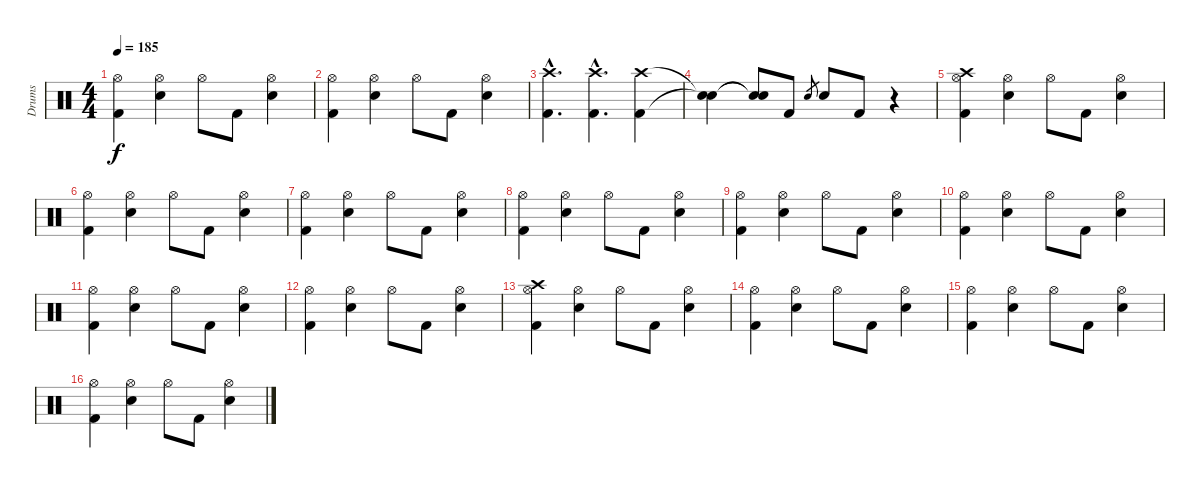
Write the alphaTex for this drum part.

\track ("Drums" "Drums") {instrument percussion}
\staff {score}
\articulation defaults
\ts (4 4)
\tempo 185
\clef neutral
\ks c
("Hi-Hat (open)" "Kick (hit) 2").4{dy f} ("Hi-Hat (open)" "Electric Snare (hit)").4 "Hi-Hat (open)".8 "Kick (hit) 2".8 ("Hi-Hat (open)" "Electric Snare (hit)").4 |
("Hi-Hat (open)" "Kick (hit) 2").4 ("Hi-Hat (open)" "Electric Snare (hit)").4 "Hi-Hat (open)".8 "Kick (hit) 2".8 ("Hi-Hat (open)" "Electric Snare (hit)").4 |
("Crash high (hit)"{hac} "Kick (hit) 2"{hac}).4{d} ("Crash high (hit)"{hac} "Kick (hit) 2"{hac}).4{d} ("Crash high (hit)" "Kick (hit) 2").4 |
("Snare (hit)"{t} "Snare (hit)"{t}).4 ("Snare (hit)"{t} "Snare (hit)"{t}).8 "Kick (hit) 2".8 "Electric Snare (hit)".8{gr} "Electric Snare (hit)".8 "Kick (hit) 2".8 r.4 |
("Hi-Hat (open)" "Crash high (hit)" "Kick (hit) 2").4 ("Hi-Hat (open)" "Electric Snare (hit)").4 "Hi-Hat (open)".8 "Kick (hit) 2".8 ("Hi-Hat (open)" "Electric Snare (hit)").4 |
("Hi-Hat (open)" "Kick (hit) 2").4 ("Hi-Hat (open)" "Electric Snare (hit)").4 "Hi-Hat (open)".8 "Kick (hit) 2".8 ("Hi-Hat (open)" "Electric Snare (hit)").4 |
("Hi-Hat (open)" "Kick (hit) 2").4 ("Hi-Hat (open)" "Electric Snare (hit)").4 "Hi-Hat (open)".8 "Kick (hit) 2".8 ("Hi-Hat (open)" "Electric Snare (hit)").4 |
("Hi-Hat (open)" "Kick (hit) 2").4 ("Hi-Hat (open)" "Electric Snare (hit)").4 "Hi-Hat (open)".8 "Kick (hit) 2".8 ("Hi-Hat (open)" "Electric Snare (hit)").4 |
("Hi-Hat (open)" "Kick (hit) 2").4 ("Hi-Hat (open)" "Electric Snare (hit)").4 "Hi-Hat (open)".8 "Kick (hit) 2".8 ("Hi-Hat (open)" "Electric Snare (hit)").4 |
("Hi-Hat (open)" "Kick (hit) 2").4 ("Hi-Hat (open)" "Electric Snare (hit)").4 "Hi-Hat (open)".8 "Kick (hit) 2".8 ("Hi-Hat (open)" "Electric Snare (hit)").4 |
("Hi-Hat (open)" "Kick (hit) 2").4 ("Hi-Hat (open)" "Electric Snare (hit)").4 "Hi-Hat (open)".8 "Kick (hit) 2".8 ("Hi-Hat (open)" "Electric Snare (hit)").4 |
("Hi-Hat (open)" "Kick (hit) 2").4 ("Hi-Hat (open)" "Electric Snare (hit)").4 "Hi-Hat (open)".8 "Kick (hit) 2".8 ("Hi-Hat (open)" "Electric Snare (hit)").4 |
("Hi-Hat (open)" "Crash high (hit)" "Kick (hit) 2").4 ("Hi-Hat (open)" "Electric Snare (hit)").4 "Hi-Hat (open)".8 "Kick (hit) 2".8 ("Hi-Hat (open)" "Electric Snare (hit)").4 |
("Hi-Hat (open)" "Kick (hit) 2").4 ("Hi-Hat (open)" "Electric Snare (hit)").4 "Hi-Hat (open)".8 "Kick (hit) 2".8 ("Hi-Hat (open)" "Electric Snare (hit)").4 |
("Hi-Hat (open)" "Kick (hit) 2").4 ("Hi-Hat (open)" "Electric Snare (hit)").4 "Hi-Hat (open)".8 "Kick (hit) 2".8 ("Hi-Hat (open)" "Electric Snare (hit)").4 |
("Hi-Hat (open)" "Kick (hit) 2").4 ("Hi-Hat (open)" "Electric Snare (hit)").4 "Hi-Hat (open)".8 "Kick (hit) 2".8 ("Hi-Hat (open)" "Electric Snare (hit)").4
